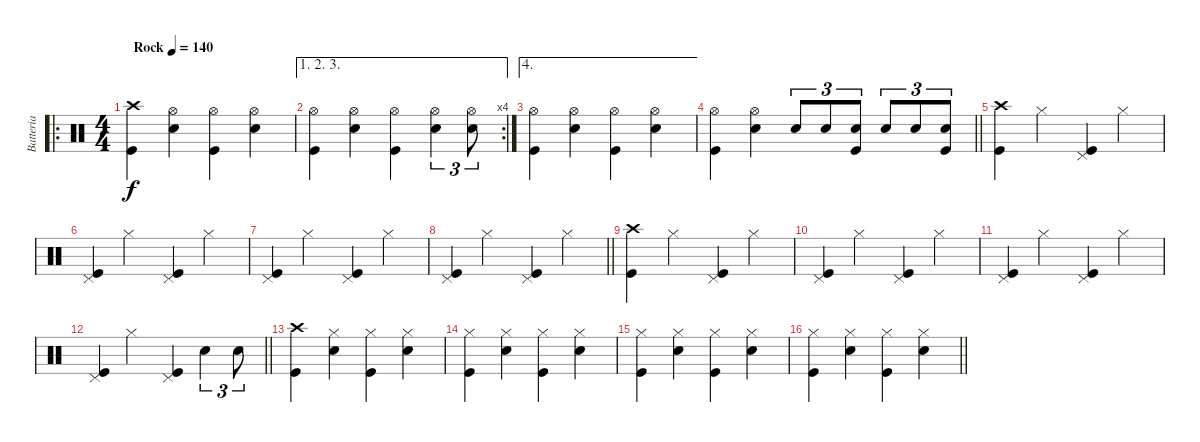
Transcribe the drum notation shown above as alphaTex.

\track ("Batteria" "Batteria") {instrument percussion}
\staff {score}
\articulation defaults
\ro
\ts (4 4)
\tempo (140 "Rock")
\clef neutral
\ks c
("Crash high (hit)" "Kick (hit)").4{dy f} ("Snare (hit) 2" "Hi-Hat (open)").4 ("Hi-Hat (open)" "Kick (hit)").4 ("Hi-Hat (open)" "Snare (hit) 2").4 |
\ae (1 2 3)
\rc 4
("Hi-Hat (open)" "Kick (hit)").4 ("Snare (hit) 2" "Hi-Hat (open)").4 ("Hi-Hat (open)" "Kick (hit)").4 ("Hi-Hat (open)" "Snare (hit) 2").4{tu (3 2)} ("Hi-Hat (open)" "Snare (hit) 2").8{tu (3 2)} |
\ae 4
("Hi-Hat (open)" "Kick (hit)").4 ("Snare (hit) 2" "Hi-Hat (open)").4 ("Hi-Hat (open)" "Kick (hit)").4 ("Snare (hit) 2" "Hi-Hat (open)").4 |
\barLineRight lightlight
("Hi-Hat (open)" "Kick (hit)").4 ("Snare (hit) 2" "Hi-Hat (open)").4 "Snare (hit) 2".8{tu (3 2)} "Snare (hit) 2".8{tu (3 2)} ("Snare (hit) 2" "Kick (hit)").8{tu (3 2)} "Snare (hit) 2".8{tu (3 2)} "Snare (hit) 2".8{tu (3 2)} ("Snare (hit) 2" "Kick (hit)").8{tu (3 2)} |
("Crash high (hit)" "Kick (hit)").4 "Hi-Hat (closed)".4 ("Pedal Hi-Hat (hit)" "Kick (hit)").4 "Hi-Hat (closed)".4 |
("Pedal Hi-Hat (hit)" "Kick (hit)").4 "Hi-Hat (closed)".4 ("Pedal Hi-Hat (hit)" "Kick (hit)").4 "Hi-Hat (closed)".4 |
("Pedal Hi-Hat (hit)" "Kick (hit)").4 "Hi-Hat (closed)".4 ("Pedal Hi-Hat (hit)" "Kick (hit)").4 "Hi-Hat (closed)".4 |
\barLineRight lightlight
("Pedal Hi-Hat (hit)" "Kick (hit)").4 "Hi-Hat (closed)".4 ("Pedal Hi-Hat (hit)" "Kick (hit)").4 "Hi-Hat (closed)".4 |
("Crash high (hit)" "Kick (hit)").4 "Hi-Hat (closed)".4 ("Pedal Hi-Hat (hit)" "Kick (hit)").4 "Hi-Hat (closed)".4 |
("Pedal Hi-Hat (hit)" "Kick (hit)").4 "Hi-Hat (closed)".4 ("Pedal Hi-Hat (hit)" "Kick (hit)").4 "Hi-Hat (closed)".4 |
("Pedal Hi-Hat (hit)" "Kick (hit)").4 "Hi-Hat (closed)".4 ("Pedal Hi-Hat (hit)" "Kick (hit)").4 "Hi-Hat (closed)".4 |
\barLineRight lightlight
("Pedal Hi-Hat (hit)" "Kick (hit)").4 "Hi-Hat (closed)".4 ("Pedal Hi-Hat (hit)" "Kick (hit)").4 "Snare (hit) 2".4{tu (3 2)} "Snare (hit) 2".8{tu (3 2)} |
("Crash high (hit)" "Kick (hit)").4 ("Snare (hit) 2" "Hi-Hat (closed)").4 ("Hi-Hat (closed)" "Kick (hit)").4 ("Hi-Hat (closed)" "Snare (hit) 2").4 |
("Hi-Hat (closed)" "Kick (hit)").4 ("Snare (hit) 2" "Hi-Hat (closed)").4 ("Hi-Hat (closed)" "Kick (hit)").4 ("Hi-Hat (closed)" "Snare (hit) 2").4 |
("Hi-Hat (closed)" "Kick (hit)").4 ("Snare (hit) 2" "Hi-Hat (closed)").4 ("Hi-Hat (closed)" "Kick (hit)").4 ("Hi-Hat (closed)" "Snare (hit) 2").4 |
\barLineRight lightlight
("Hi-Hat (closed)" "Kick (hit)").4 ("Snare (hit) 2" "Hi-Hat (closed)").4 ("Hi-Hat (closed)" "Kick (hit)").4 ("Hi-Hat (closed)" "Snare (hit) 2").4
